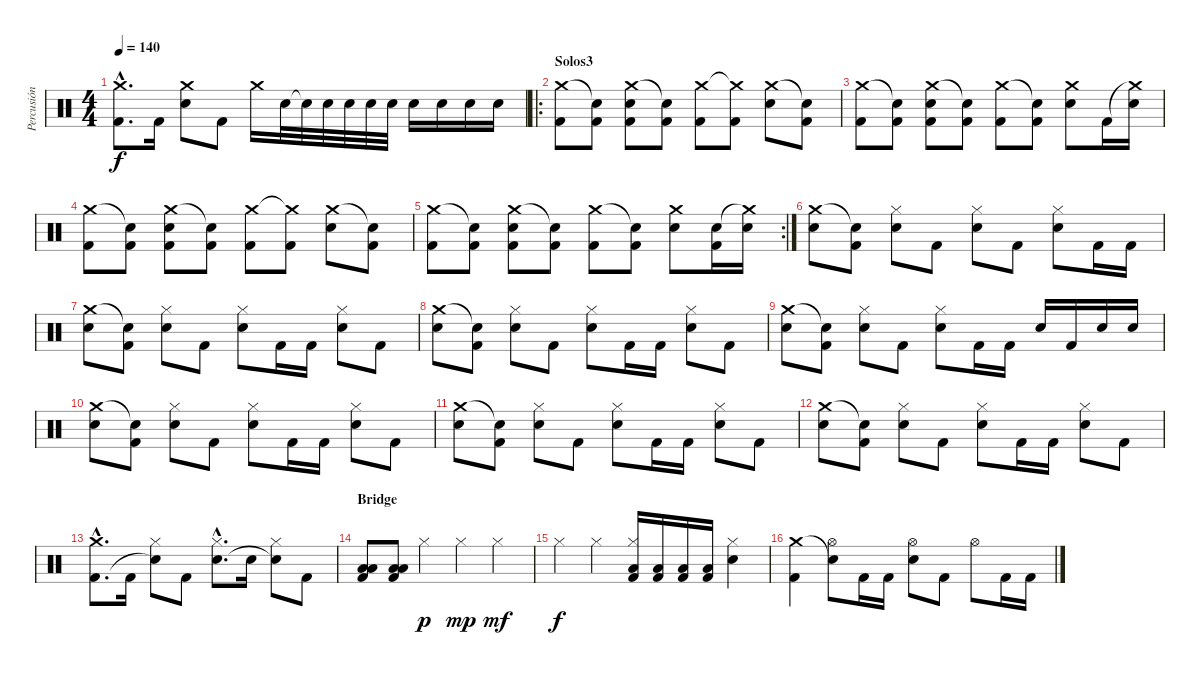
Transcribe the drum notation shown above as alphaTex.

\track ("Percusión" "Percusión") {instrument percussion}
\staff {score}
\articulation defaults
\ts (4 4)
\tempo 140
\clef neutral
\ks c
("Crash medium (hit)"{hac} "Kick (hit) 2"{hac}).8{d dy f} "Kick (hit) 2".16 ("Crash medium (hit)" "Electric Snare (hit)").8 "Kick (hit) 2".8 "Crash medium (hit)".16 "Electric Snare (hit)".32 "Electric Snare (hit)"{t}.32 "Electric Snare (hit)".32 "Electric Snare (hit)".32 "Electric Snare (hit)".32 "Electric Snare (hit)".32 "Electric Snare (hit)".16 "Electric Snare (hit)".16 "Electric Snare (hit)".16 "Electric Snare (hit)".16 |
\ro
\section ("" "Solos3")
("Crash medium (hit)" "Kick (hit) 2").8 ("Snare (hit)"{t} "Kick (hit) 2").8 ("Crash medium (hit)" "Electric Snare (hit)" "Kick (hit) 2").8 ("Snare (hit)"{t} "Kick (hit) 2").8 ("Crash medium (hit)" "Kick (hit) 2").8 ("Crash medium (hit)"{t} "Kick (hit) 2").8 ("Crash medium (hit)" "Electric Snare (hit)").8 ("Snare (hit)"{t} "Kick (hit) 2").8 |
("Crash medium (hit)" "Kick (hit) 2").8 ("Snare (hit)"{t} "Kick (hit) 2").8 ("Crash medium (hit)" "Electric Snare (hit)" "Kick (hit) 2").8 ("Snare (hit)"{t} "Kick (hit) 2").8 ("Crash medium (hit)" "Kick (hit) 2").8 ("Snare (hit)"{t} "Kick (hit) 2").8 ("Crash medium (hit)" "Electric Snare (hit)").8 "Kick (hit) 2".16 ("Crash medium (hit)"{t} "Electric Snare (hit)").16 |
("Crash medium (hit)" "Kick (hit) 2").8 ("Snare (hit)"{t} "Kick (hit) 2").8 ("Crash medium (hit)" "Electric Snare (hit)" "Kick (hit) 2").8 ("Snare (hit)"{t} "Kick (hit) 2").8 ("Crash medium (hit)" "Kick (hit) 2").8 ("Crash medium (hit)"{t} "Kick (hit) 2").8 ("Crash medium (hit)" "Electric Snare (hit)").8 ("Snare (hit)"{t} "Kick (hit) 2").8 |
\rc 2
("Crash medium (hit)" "Kick (hit) 2").8 ("Snare (hit)"{t} "Kick (hit) 2").8 ("Crash medium (hit)" "Electric Snare (hit)" "Kick (hit) 2").8 ("Snare (hit)"{t} "Kick (hit) 2").8 ("Crash medium (hit)" "Kick (hit) 2").8 ("Snare (hit)"{t} "Kick (hit) 2").8 ("Crash medium (hit)" "Electric Snare (hit)").8 ("Electric Snare (hit)" "Kick (hit) 2").16 ("Crash medium (hit)"{t} "Electric Snare (hit)").16 |
("Crash medium (hit)" "Electric Snare (hit)").8 ("Snare (hit)"{t} "Kick (hit) 2").8 ("Hi-Hat (closed)" "Electric Snare (hit)").8 "Kick (hit) 2".8 ("Hi-Hat (closed)" "Electric Snare (hit)").8 "Kick (hit) 2".8 ("Hi-Hat (closed)" "Electric Snare (hit)").8 "Kick (hit) 2".16 "Kick (hit) 2".16 |
("Crash medium (hit)" "Electric Snare (hit)").8 ("Snare (hit)"{t} "Kick (hit) 2").8 ("Hi-Hat (closed)" "Electric Snare (hit)").8 "Kick (hit) 2".8 ("Hi-Hat (closed)" "Electric Snare (hit)").8 "Kick (hit) 2".16 "Kick (hit) 2".16 ("Hi-Hat (closed)" "Electric Snare (hit)").8 "Kick (hit) 2".8 |
("Crash medium (hit)" "Electric Snare (hit)").8 ("Snare (hit)"{t} "Kick (hit) 2").8 ("Hi-Hat (closed)" "Electric Snare (hit)").8 "Kick (hit) 2".8 ("Hi-Hat (closed)" "Electric Snare (hit)").8 "Kick (hit) 2".16 "Kick (hit) 2".16 ("Hi-Hat (closed)" "Electric Snare (hit)").8 "Kick (hit) 2".8 |
("Crash medium (hit)" "Electric Snare (hit)").8 ("Snare (hit)"{t} "Kick (hit) 2").8 ("Hi-Hat (closed)" "Electric Snare (hit)").8 "Kick (hit) 2".8 ("Hi-Hat (closed)" "Electric Snare (hit)").8 "Kick (hit) 2".16 "Kick (hit) 2".16 "Electric Snare (hit)".16 "Kick (hit) 2".16 "Electric Snare (hit)".16 "Electric Snare (hit)".16 |
("Crash medium (hit)" "Electric Snare (hit)").8 ("Snare (hit)"{t} "Kick (hit) 2").8 ("Hi-Hat (closed)" "Electric Snare (hit)").8 "Kick (hit) 2".8 ("Hi-Hat (closed)" "Electric Snare (hit)").8 "Kick (hit) 2".16 "Kick (hit) 2".16 ("Hi-Hat (closed)" "Electric Snare (hit)").8 "Kick (hit) 2".8 |
("Crash medium (hit)" "Electric Snare (hit)").8 ("Snare (hit)"{t} "Kick (hit) 2").8 ("Hi-Hat (closed)" "Electric Snare (hit)").8 "Kick (hit) 2".8 ("Hi-Hat (closed)" "Electric Snare (hit)").8 "Kick (hit) 2".16 "Kick (hit) 2".16 ("Hi-Hat (closed)" "Electric Snare (hit)").8 "Kick (hit) 2".8 |
("Crash medium (hit)" "Electric Snare (hit)").8 ("Snare (hit)"{t} "Kick (hit) 2").8 ("Hi-Hat (closed)" "Electric Snare (hit)").8 "Kick (hit) 2".8 ("Hi-Hat (closed)" "Electric Snare (hit)").8 "Kick (hit) 2".16 "Kick (hit) 2".16 ("Hi-Hat (closed)" "Electric Snare (hit)").8 "Kick (hit) 2".8 |
("Crash medium (hit)"{hac} "Kick (hit) 2"{hac}).8{d} "Kick (hit) 2".16 ("Hi-Hat (closed)" "Snare (hit)"{t}).8 "Kick (hit) 2".8 ("Hi-Hat (closed)"{hac} "Electric Snare (hit)"{hac}).8{d} "Electric Snare (hit)".16 ("Hi-Hat (closed)" "Snare (hit)"{t}).8 "Kick (hit) 2".8 |
\section ("" "Bridge")
("Low Floor Tom (hit)" "Low Floor Tom (hit)" "Kick (hit) 2").8 ("Low Floor Tom (hit)" "Low Floor Tom (hit)" "Kick (hit) 2").8 "Hi-Hat (closed)".4{dy p} "Hi-Hat (closed)".4{dy mp} "Hi-Hat (closed)".4{dy mf} |
"Hi-Hat (closed)".4{dy f} "Hi-Hat (closed)".4 ("Hi-Hat (closed)" "Low Floor Tom (hit)" "Kick (hit) 2").16 ("Low Floor Tom (hit)" "Kick (hit) 2").16 ("Low Floor Tom (hit)" "Kick (hit) 2").16 ("Low Floor Tom (hit)" "Kick (hit) 2").16 ("Hi-Hat (closed)" "Electric Snare (hit)").4 |
("Crash medium (hit)" "Kick (hit) 2").4 ("Snare (hit)"{t} "Hi-Hat (open)").8 "Kick (hit) 2".16 "Kick (hit) 2".16 ("Hi-Hat (open)" "Electric Snare (hit)").8 "Kick (hit) 2".8 "Hi-Hat (open)".8 "Kick (hit) 2".16 "Kick (hit) 2".16
